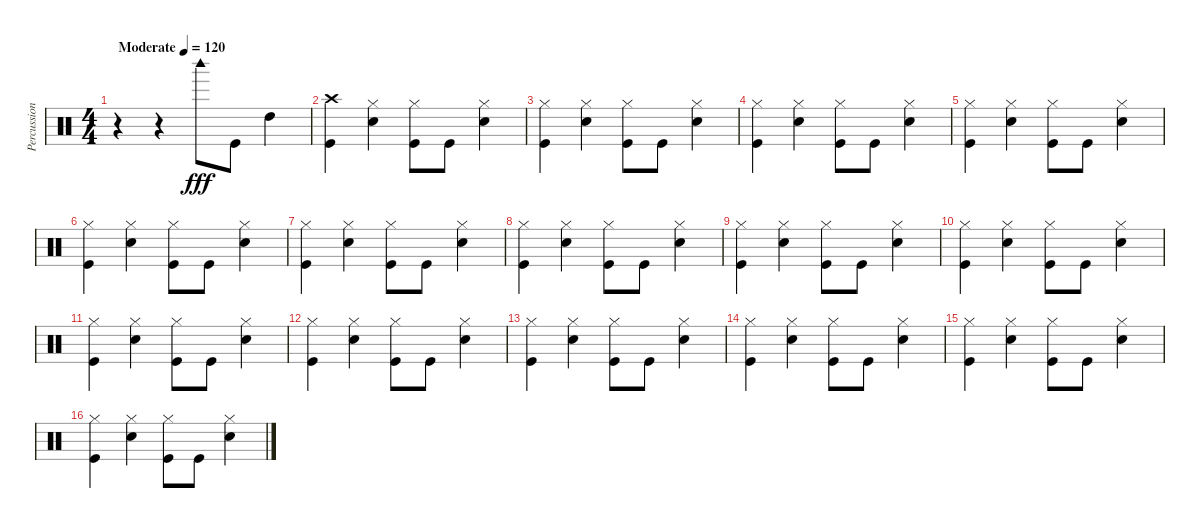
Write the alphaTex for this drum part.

\track ("Percussion" "Percussion") {instrument percussion}
\staff {score}
\articulation defaults
\ts (4 4)
\tempo (120 "Moderate")
\clef neutral
\ks c
r.4{dy fff} r.4 "Woodblock high (hit)".8 "Kick (hit)".8 "High Tom (hit)".4 |
("Kick (hit)" "Crash high (hit)").4 ("Hi-Hat (closed)" "Snare (hit) 2").4 ("Kick (hit)" "Hi-Hat (closed)").8 "Kick (hit)".8 ("Hi-Hat (closed)" "Snare (hit) 2").4 |
("Kick (hit)" "Hi-Hat (closed)").4 ("Hi-Hat (closed)" "Snare (hit) 2").4 ("Kick (hit)" "Hi-Hat (closed)").8 "Kick (hit)".8 ("Hi-Hat (closed)" "Snare (hit) 2").4 |
("Kick (hit)" "Hi-Hat (closed)").4 ("Hi-Hat (closed)" "Snare (hit) 2").4 ("Kick (hit)" "Hi-Hat (closed)").8 "Kick (hit)".8 ("Hi-Hat (closed)" "Snare (hit) 2").4 |
("Kick (hit)" "Hi-Hat (closed)").4 ("Hi-Hat (closed)" "Snare (hit) 2").4 ("Kick (hit)" "Hi-Hat (closed)").8 "Kick (hit)".8 ("Hi-Hat (closed)" "Snare (hit) 2").4 |
("Kick (hit)" "Hi-Hat (closed)").4 ("Hi-Hat (closed)" "Snare (hit) 2").4 ("Kick (hit)" "Hi-Hat (closed)").8 "Kick (hit)".8 ("Hi-Hat (closed)" "Snare (hit) 2").4 |
("Kick (hit)" "Hi-Hat (closed)").4 ("Hi-Hat (closed)" "Snare (hit) 2").4 ("Kick (hit)" "Hi-Hat (closed)").8 "Kick (hit)".8 ("Hi-Hat (closed)" "Snare (hit) 2").4 |
("Kick (hit)" "Hi-Hat (closed)").4 ("Hi-Hat (closed)" "Snare (hit) 2").4 ("Kick (hit)" "Hi-Hat (closed)").8 "Kick (hit)".8 ("Hi-Hat (closed)" "Snare (hit) 2").4 |
("Kick (hit)" "Hi-Hat (closed)").4 ("Hi-Hat (closed)" "Snare (hit) 2").4 ("Kick (hit)" "Hi-Hat (closed)").8 "Kick (hit)".8 ("Hi-Hat (closed)" "Snare (hit) 2").4 |
("Kick (hit)" "Hi-Hat (closed)").4 ("Hi-Hat (closed)" "Snare (hit) 2").4 ("Kick (hit)" "Hi-Hat (closed)").8 "Kick (hit)".8 ("Hi-Hat (closed)" "Snare (hit) 2").4 |
("Kick (hit)" "Hi-Hat (closed)").4 ("Hi-Hat (closed)" "Snare (hit) 2").4 ("Kick (hit)" "Hi-Hat (closed)").8 "Kick (hit)".8 ("Hi-Hat (closed)" "Snare (hit) 2").4 |
("Kick (hit)" "Hi-Hat (closed)").4 ("Hi-Hat (closed)" "Snare (hit) 2").4 ("Kick (hit)" "Hi-Hat (closed)").8 "Kick (hit)".8 ("Hi-Hat (closed)" "Snare (hit) 2").4 |
("Kick (hit)" "Hi-Hat (closed)").4 ("Hi-Hat (closed)" "Snare (hit) 2").4 ("Kick (hit)" "Hi-Hat (closed)").8 "Kick (hit)".8 ("Hi-Hat (closed)" "Snare (hit) 2").4 |
("Kick (hit)" "Hi-Hat (closed)").4 ("Hi-Hat (closed)" "Snare (hit) 2").4 ("Kick (hit)" "Hi-Hat (closed)").8 "Kick (hit)".8 ("Hi-Hat (closed)" "Snare (hit) 2").4 |
("Kick (hit)" "Hi-Hat (closed)").4 ("Hi-Hat (closed)" "Snare (hit) 2").4 ("Kick (hit)" "Hi-Hat (closed)").8 "Kick (hit)".8 ("Hi-Hat (closed)" "Snare (hit) 2").4 |
("Kick (hit)" "Hi-Hat (closed)").4 ("Hi-Hat (closed)" "Snare (hit) 2").4 ("Kick (hit)" "Hi-Hat (closed)").8 "Kick (hit)".8 ("Hi-Hat (closed)" "Snare (hit) 2").4
